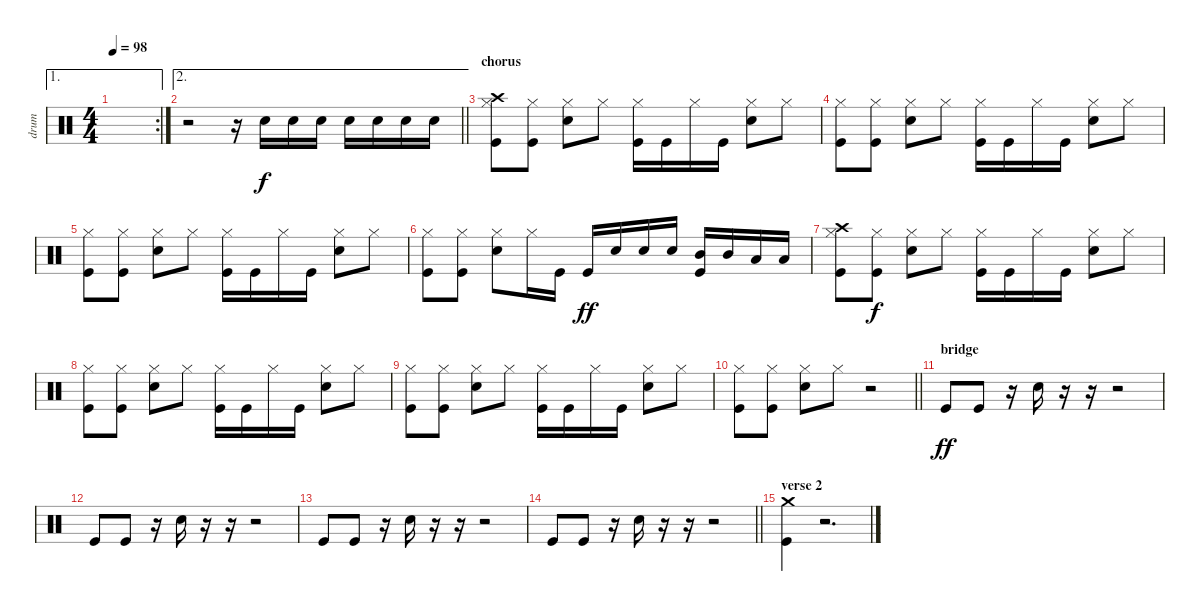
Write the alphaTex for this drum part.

\track ("drum" "drum") {instrument percussion}
\staff {score}
\articulation defaults
\ae 1
\rc 2
\ts (4 4)
\tempo 98
\clef neutral
\ks c
|
\ae 2
\barLineRight lightlight
r.2 r.16 "Electric Snare (hit)".16 "Electric Snare (hit)".16 "Electric Snare (hit)".16 "Electric Snare (hit)".16 "Electric Snare (hit)".16 "Electric Snare (hit)".16 "Electric Snare (hit)".16 |
\section ("" "chorus")
("Crash high (hit)" "Hi-Hat (closed)" "Kick (hit)").8 ("Hi-Hat (closed)" "Kick (hit)").8{dy f} ("Hi-Hat (closed)" "Electric Snare (hit)").8 "Hi-Hat (closed)".8 ("Hi-Hat (closed)" "Kick (hit)").16 "Kick (hit)".16 "Hi-Hat (closed)".16 "Kick (hit)".16 ("Hi-Hat (closed)" "Electric Snare (hit)").8 "Hi-Hat (closed)".8 |
("Hi-Hat (closed)" "Kick (hit)").8 ("Hi-Hat (closed)" "Kick (hit)").8 ("Hi-Hat (closed)" "Electric Snare (hit)").8 "Hi-Hat (closed)".8 ("Hi-Hat (closed)" "Kick (hit)").16 "Kick (hit)".16 "Hi-Hat (closed)".16 "Kick (hit)".16 ("Hi-Hat (closed)" "Electric Snare (hit)").8 "Hi-Hat (closed)".8 |
("Hi-Hat (closed)" "Kick (hit)").8 ("Hi-Hat (closed)" "Kick (hit)").8 ("Hi-Hat (closed)" "Electric Snare (hit)").8 "Hi-Hat (closed)".8 ("Hi-Hat (closed)" "Kick (hit)").16 "Kick (hit)".16 "Hi-Hat (closed)".16 "Kick (hit)".16 ("Hi-Hat (closed)" "Electric Snare (hit)").8 "Hi-Hat (closed)".8 |
("Hi-Hat (closed)" "Kick (hit)").8 ("Hi-Hat (closed)" "Kick (hit)").8 ("Hi-Hat (closed)" "Electric Snare (hit)").8 "Hi-Hat (closed)".16 "Kick (hit)".16 "Kick (hit)".16{dy ff} "Electric Snare (hit)".16 "Electric Snare (hit)".16 "Electric Snare (hit)".16 ("Mid Tom (hit)" "Kick (hit)").16 "Mid Tom (hit)".16 "Low Tom (hit)".16 "Low Tom (hit)".16 |
("Crash high (hit)" "Hi-Hat (closed)" "Kick (hit)").8 ("Hi-Hat (closed)" "Kick (hit)").8{dy f} ("Hi-Hat (closed)" "Electric Snare (hit)").8 "Hi-Hat (closed)".8 ("Hi-Hat (closed)" "Kick (hit)").16 "Kick (hit)".16 "Hi-Hat (closed)".16 "Kick (hit)".16 ("Hi-Hat (closed)" "Electric Snare (hit)").8 "Hi-Hat (closed)".8 |
("Hi-Hat (closed)" "Kick (hit)").8 ("Hi-Hat (closed)" "Kick (hit)").8 ("Hi-Hat (closed)" "Electric Snare (hit)").8 "Hi-Hat (closed)".8 ("Hi-Hat (closed)" "Kick (hit)").16 "Kick (hit)".16 "Hi-Hat (closed)".16 "Kick (hit)".16 ("Hi-Hat (closed)" "Electric Snare (hit)").8 "Hi-Hat (closed)".8 |
("Hi-Hat (closed)" "Kick (hit)").8 ("Hi-Hat (closed)" "Kick (hit)").8 ("Hi-Hat (closed)" "Electric Snare (hit)").8 "Hi-Hat (closed)".8 ("Hi-Hat (closed)" "Kick (hit)").16 "Kick (hit)".16 "Hi-Hat (closed)".16 "Kick (hit)".16 ("Hi-Hat (closed)" "Electric Snare (hit)").8 "Hi-Hat (closed)".8 |
\barLineRight lightlight
("Hi-Hat (closed)" "Kick (hit)").8 ("Hi-Hat (closed)" "Kick (hit)").8 ("Hi-Hat (closed)" "Electric Snare (hit)").8 "Hi-Hat (closed)".8 r.2 |
\section ("" "bridge")
"Kick (hit)".8{dy ff} "Kick (hit)".8 r.16 "Electric Snare (hit)".16 r.16 r.16 r.2 |
"Kick (hit)".8 "Kick (hit)".8 r.16 "Electric Snare (hit)".16 r.16 r.16 r.2 |
"Kick (hit)".8 "Kick (hit)".8 r.16 "Electric Snare (hit)".16 r.16 r.16 r.2 |
\barLineRight lightlight "Kick (hit)".8 "Kick (hit)".8
r.16 "Electric Snare (hit)".16 r.16 r.16 r.2 |
\section ("" "verse 2")
("Crash medium (hit)" "Kick (hit)").4 r.2{d}
